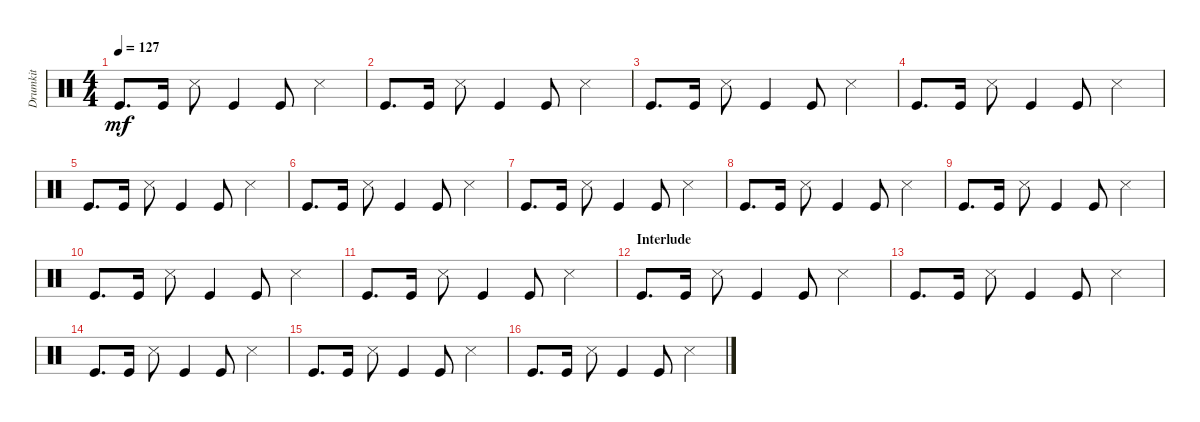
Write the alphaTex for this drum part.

\track ("Drumkit" "Drumkit") {instrument percussion}
\staff {score}
\articulation defaults
\ts (4 4)
\tempo 127
\clef neutral
\ks c "Kick (hit)".8{d dy mf} "Kick (hit)".16 "Snare (side stick) 3".8 "Kick (hit)".4 "Kick (hit)".8 "Snare (side stick) 3".4
|
"Kick (hit)".8{d} "Kick (hit)".16 "Snare (side stick) 3".8 "Kick (hit)".4 "Kick (hit)".8 "Snare (side stick) 3".4 |
"Kick (hit)".8{d} "Kick (hit)".16 "Snare (side stick) 3".8 "Kick (hit)".4 "Kick (hit)".8 "Snare (side stick) 3".4 |
"Kick (hit)".8{d} "Kick (hit)".16 "Snare (side stick) 3".8 "Kick (hit)".4 "Kick (hit)".8 "Snare (side stick) 3".4 |
"Kick (hit)".8{d} "Kick (hit)".16 "Snare (side stick) 3".8 "Kick (hit)".4 "Kick (hit)".8 "Snare (side stick) 3".4 |
"Kick (hit)".8{d} "Kick (hit)".16 "Snare (side stick) 3".8 "Kick (hit)".4 "Kick (hit)".8 "Snare (side stick) 3".4 |
"Kick (hit)".8{d} "Kick (hit)".16 "Snare (side stick) 3".8 "Kick (hit)".4 "Kick (hit)".8 "Snare (side stick) 3".4 |
"Kick (hit)".8{d} "Kick (hit)".16 "Snare (side stick) 3".8 "Kick (hit)".4 "Kick (hit)".8 "Snare (side stick) 3".4 |
"Kick (hit)".8{d} "Kick (hit)".16 "Snare (side stick) 3".8 "Kick (hit)".4 "Kick (hit)".8 "Snare (side stick) 3".4 |
"Kick (hit)".8{d} "Kick (hit)".16 "Snare (side stick) 3".8 "Kick (hit)".4 "Kick (hit)".8 "Snare (side stick) 3".4 |
"Kick (hit)".8{d} "Kick (hit)".16 "Snare (side stick) 3".8 "Kick (hit)".4 "Kick (hit)".8 "Snare (side stick) 3".4 |
\section ("" "Interlude")
"Kick (hit)".8{d} "Kick (hit)".16 "Snare (side stick) 3".8 "Kick (hit)".4 "Kick (hit)".8 "Snare (side stick) 3".4 |
"Kick (hit)".8{d} "Kick (hit)".16 "Snare (side stick) 3".8 "Kick (hit)".4 "Kick (hit)".8 "Snare (side stick) 3".4 |
"Kick (hit)".8{d} "Kick (hit)".16 "Snare (side stick) 3".8 "Kick (hit)".4 "Kick (hit)".8 "Snare (side stick) 3".4 |
"Kick (hit)".8{d} "Kick (hit)".16 "Snare (side stick) 3".8 "Kick (hit)".4 "Kick (hit)".8 "Snare (side stick) 3".4 |
"Kick (hit)".8{d} "Kick (hit)".16 "Snare (side stick) 3".8 "Kick (hit)".4 "Kick (hit)".8 "Snare (side stick) 3".4
